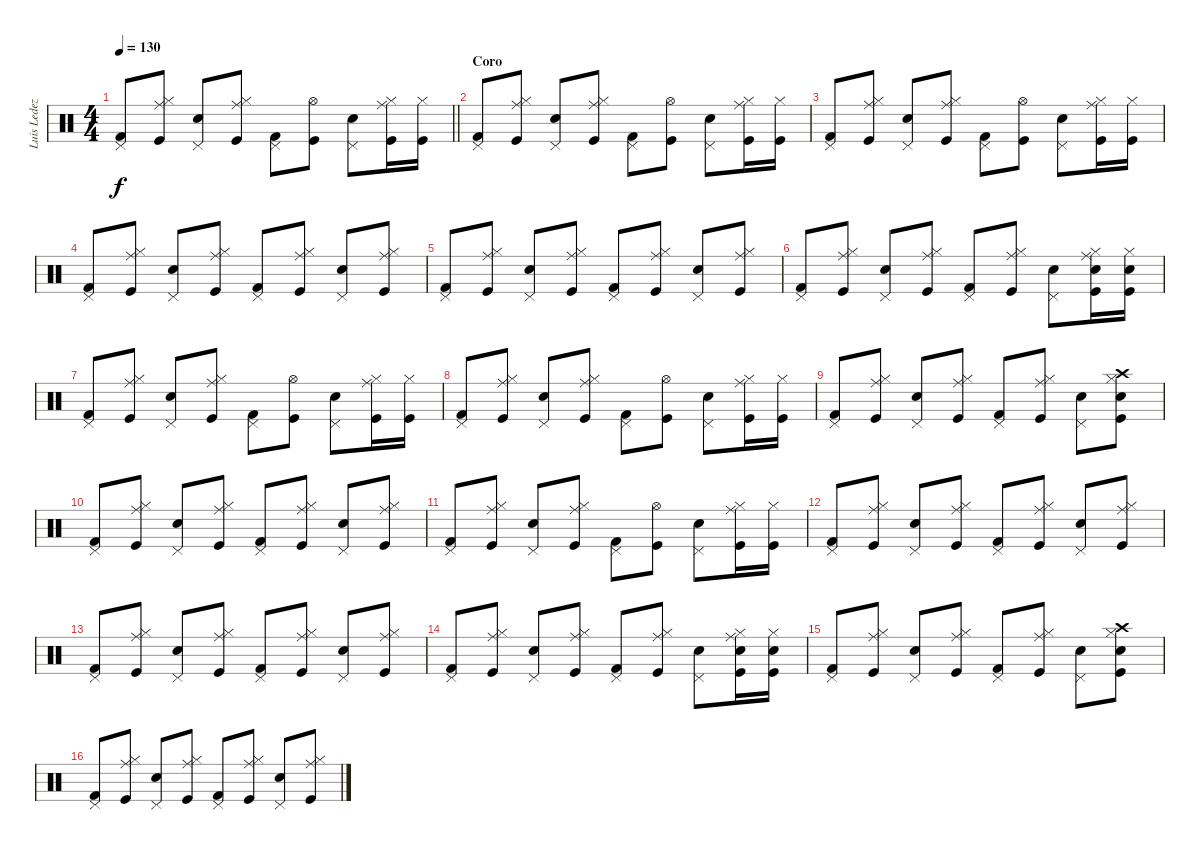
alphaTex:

\track ("Luis Ledezma (bateria)" "Luis Ledez") {instrument percussion}
\staff {score}
\articulation defaults
\ts (4 4)
\tempo 130
\clef neutral
\barLineRight lightlight
\ks c
("Pedal Hi-Hat (hit)" "Kick (hit) 2").8{dy f} ("Ride (middle)" "Hi-Hat (closed)" "Kick (hit)").8 ("Pedal Hi-Hat (hit)" "Snare (hit) 2").8 ("Ride (middle)" "Hi-Hat (closed)" "Kick (hit)").8 ("Pedal Hi-Hat (hit)" "Kick (hit) 2").8 ("Hi-Hat (open)" "Kick (hit)").8 ("Pedal Hi-Hat (hit)" "Snare (hit) 2").8 ("Ride (middle)" "Hi-Hat (closed)" "Kick (hit)").16 ("Hi-Hat (closed)" "Kick (hit)").16 |
\section ("" "Coro")
("Pedal Hi-Hat (hit)" "Kick (hit) 2").8 ("Ride (middle)" "Hi-Hat (closed)" "Kick (hit)").8 ("Pedal Hi-Hat (hit)" "Snare (hit) 2").8 ("Ride (middle)" "Hi-Hat (closed)" "Kick (hit)").8 ("Pedal Hi-Hat (hit)" "Kick (hit) 2").8 ("Hi-Hat (open)" "Kick (hit)").8 ("Pedal Hi-Hat (hit)" "Snare (hit) 2").8 ("Ride (middle)" "Hi-Hat (closed)" "Kick (hit)").16 ("Hi-Hat (closed)" "Kick (hit)").16 |
("Pedal Hi-Hat (hit)" "Kick (hit) 2").8 ("Ride (middle)" "Hi-Hat (closed)" "Kick (hit)").8 ("Pedal Hi-Hat (hit)" "Snare (hit) 2").8 ("Ride (middle)" "Hi-Hat (closed)" "Kick (hit)").8 ("Pedal Hi-Hat (hit)" "Kick (hit) 2").8 ("Hi-Hat (open)" "Kick (hit)").8 ("Pedal Hi-Hat (hit)" "Snare (hit) 2").8 ("Ride (middle)" "Hi-Hat (closed)" "Kick (hit)").16 ("Hi-Hat (closed)" "Kick (hit)").16 |
("Pedal Hi-Hat (hit)" "Kick (hit) 2").8 ("Ride (middle)" "Hi-Hat (closed)" "Kick (hit)").8 ("Pedal Hi-Hat (hit)" "Snare (hit) 2").8 ("Ride (middle)" "Hi-Hat (closed)" "Kick (hit)").8 ("Pedal Hi-Hat (hit)" "Kick (hit) 2").8 ("Ride (middle)" "Hi-Hat (closed)" "Kick (hit)").8 ("Pedal Hi-Hat (hit)" "Snare (hit) 2").8 ("Ride (middle)" "Hi-Hat (closed)" "Kick (hit)").8 |
("Pedal Hi-Hat (hit)" "Kick (hit) 2").8 ("Ride (middle)" "Hi-Hat (closed)" "Kick (hit)").8 ("Pedal Hi-Hat (hit)" "Snare (hit) 2").8 ("Ride (middle)" "Hi-Hat (closed)" "Kick (hit)").8 ("Pedal Hi-Hat (hit)" "Kick (hit) 2").8 ("Ride (middle)" "Hi-Hat (closed)" "Kick (hit)").8 ("Pedal Hi-Hat (hit)" "Snare (hit) 2").8 ("Ride (middle)" "Hi-Hat (closed)" "Kick (hit)").8 |
("Pedal Hi-Hat (hit)" "Kick (hit) 2").8 ("Ride (middle)" "Hi-Hat (closed)" "Kick (hit)").8 ("Pedal Hi-Hat (hit)" "Snare (hit) 2").8 ("Ride (middle)" "Hi-Hat (closed)" "Kick (hit)").8 ("Pedal Hi-Hat (hit)" "Kick (hit) 2").8 ("Ride (middle)" "Hi-Hat (closed)" "Kick (hit)").8 ("Pedal Hi-Hat (hit)" "Snare (hit) 2").8 ("Ride (middle)" "Hi-Hat (closed)" "Snare (hit) 2" "Kick (hit)").16 ("Hi-Hat (closed)" "Snare (hit) 2" "Kick (hit)").16 |
("Pedal Hi-Hat (hit)" "Kick (hit) 2").8 ("Ride (middle)" "Hi-Hat (closed)" "Kick (hit)").8 ("Pedal Hi-Hat (hit)" "Snare (hit) 2").8 ("Ride (middle)" "Hi-Hat (closed)" "Kick (hit)").8 ("Pedal Hi-Hat (hit)" "Kick (hit) 2").8 ("Hi-Hat (open)" "Kick (hit)").8 ("Pedal Hi-Hat (hit)" "Snare (hit) 2").8 ("Ride (middle)" "Hi-Hat (closed)" "Kick (hit)").16 ("Hi-Hat (closed)" "Kick (hit)").16 |
("Pedal Hi-Hat (hit)" "Kick (hit) 2").8 ("Ride (middle)" "Hi-Hat (closed)" "Kick (hit)").8 ("Pedal Hi-Hat (hit)" "Snare (hit) 2").8 ("Ride (middle)" "Hi-Hat (closed)" "Kick (hit)").8 ("Pedal Hi-Hat (hit)" "Kick (hit) 2").8 ("Hi-Hat (open)" "Kick (hit)").8 ("Pedal Hi-Hat (hit)" "Snare (hit) 2").8 ("Ride (middle)" "Hi-Hat (closed)" "Kick (hit)").16 ("Hi-Hat (closed)" "Kick (hit)").16 |
("Pedal Hi-Hat (hit)" "Kick (hit) 2").8 ("Ride (middle)" "Hi-Hat (closed)" "Kick (hit)").8 ("Pedal Hi-Hat (hit)" "Snare (hit) 2").8 ("Ride (middle)" "Hi-Hat (closed)" "Kick (hit)").8 ("Pedal Hi-Hat (hit)" "Kick (hit) 2").8 ("Ride (middle)" "Hi-Hat (closed)" "Kick (hit)").8 ("Pedal Hi-Hat (hit)" "Snare (hit) 2").8 ("Crash high (hit)" "Hi-Hat (closed)" "Snare (hit) 2" "Kick (hit)").8 |
("Pedal Hi-Hat (hit)" "Kick (hit) 2").8 ("Ride (middle)" "Hi-Hat (closed)" "Kick (hit)").8 ("Pedal Hi-Hat (hit)" "Snare (hit) 2").8 ("Ride (middle)" "Hi-Hat (closed)" "Kick (hit)").8 ("Pedal Hi-Hat (hit)" "Kick (hit) 2").8 ("Ride (middle)" "Hi-Hat (closed)" "Kick (hit)").8 ("Pedal Hi-Hat (hit)" "Snare (hit) 2").8 ("Ride (middle)" "Hi-Hat (closed)" "Kick (hit)").8 |
("Pedal Hi-Hat (hit)" "Kick (hit) 2").8 ("Ride (middle)" "Hi-Hat (closed)" "Kick (hit)").8 ("Pedal Hi-Hat (hit)" "Snare (hit) 2").8 ("Ride (middle)" "Hi-Hat (closed)" "Kick (hit)").8 ("Pedal Hi-Hat (hit)" "Kick (hit) 2").8 ("Hi-Hat (open)" "Kick (hit)").8 ("Pedal Hi-Hat (hit)" "Snare (hit) 2").8 ("Ride (middle)" "Hi-Hat (closed)" "Kick (hit)").16 ("Hi-Hat (closed)" "Kick (hit)").16 |
("Pedal Hi-Hat (hit)" "Kick (hit) 2").8 ("Ride (middle)" "Hi-Hat (closed)" "Kick (hit)").8 ("Pedal Hi-Hat (hit)" "Snare (hit) 2").8 ("Ride (middle)" "Hi-Hat (closed)" "Kick (hit)").8 ("Pedal Hi-Hat (hit)" "Kick (hit) 2").8 ("Ride (middle)" "Hi-Hat (closed)" "Kick (hit)").8 ("Pedal Hi-Hat (hit)" "Snare (hit) 2").8 ("Ride (middle)" "Hi-Hat (closed)" "Kick (hit)").8 |
("Pedal Hi-Hat (hit)" "Kick (hit) 2").8 ("Ride (middle)" "Hi-Hat (closed)" "Kick (hit)").8 ("Pedal Hi-Hat (hit)" "Snare (hit) 2").8 ("Ride (middle)" "Hi-Hat (closed)" "Kick (hit)").8 ("Pedal Hi-Hat (hit)" "Kick (hit) 2").8 ("Ride (middle)" "Hi-Hat (closed)" "Kick (hit)").8 ("Pedal Hi-Hat (hit)" "Snare (hit) 2").8 ("Ride (middle)" "Hi-Hat (closed)" "Kick (hit)").8 |
("Pedal Hi-Hat (hit)" "Kick (hit) 2").8 ("Ride (middle)" "Hi-Hat (closed)" "Kick (hit)").8 ("Pedal Hi-Hat (hit)" "Snare (hit) 2").8 ("Ride (middle)" "Hi-Hat (closed)" "Kick (hit)").8 ("Pedal Hi-Hat (hit)" "Kick (hit) 2").8 ("Ride (middle)" "Hi-Hat (closed)" "Kick (hit)").8 ("Pedal Hi-Hat (hit)" "Snare (hit) 2").8 ("Ride (middle)" "Hi-Hat (closed)" "Snare (hit) 2" "Kick (hit)").16 ("Hi-Hat (closed)" "Snare (hit) 2" "Kick (hit)").16 |
("Pedal Hi-Hat (hit)" "Kick (hit) 2").8 ("Ride (middle)" "Hi-Hat (closed)" "Kick (hit)").8 ("Pedal Hi-Hat (hit)" "Snare (hit) 2").8 ("Ride (middle)" "Hi-Hat (closed)" "Kick (hit)").8 ("Pedal Hi-Hat (hit)" "Kick (hit) 2").8 ("Ride (middle)" "Hi-Hat (closed)" "Kick (hit)").8 ("Pedal Hi-Hat (hit)" "Snare (hit) 2").8 ("Crash high (hit)" "Hi-Hat (closed)" "Snare (hit) 2" "Kick (hit)").8 |
("Pedal Hi-Hat (hit)" "Kick (hit) 2").8 ("Ride (middle)" "Hi-Hat (closed)" "Kick (hit)").8 ("Pedal Hi-Hat (hit)" "Snare (hit) 2").8 ("Ride (middle)" "Hi-Hat (closed)" "Kick (hit)").8 ("Pedal Hi-Hat (hit)" "Kick (hit) 2").8 ("Ride (middle)" "Hi-Hat (closed)" "Kick (hit)").8 ("Pedal Hi-Hat (hit)" "Snare (hit) 2").8 ("Ride (middle)" "Hi-Hat (closed)" "Kick (hit)").8
